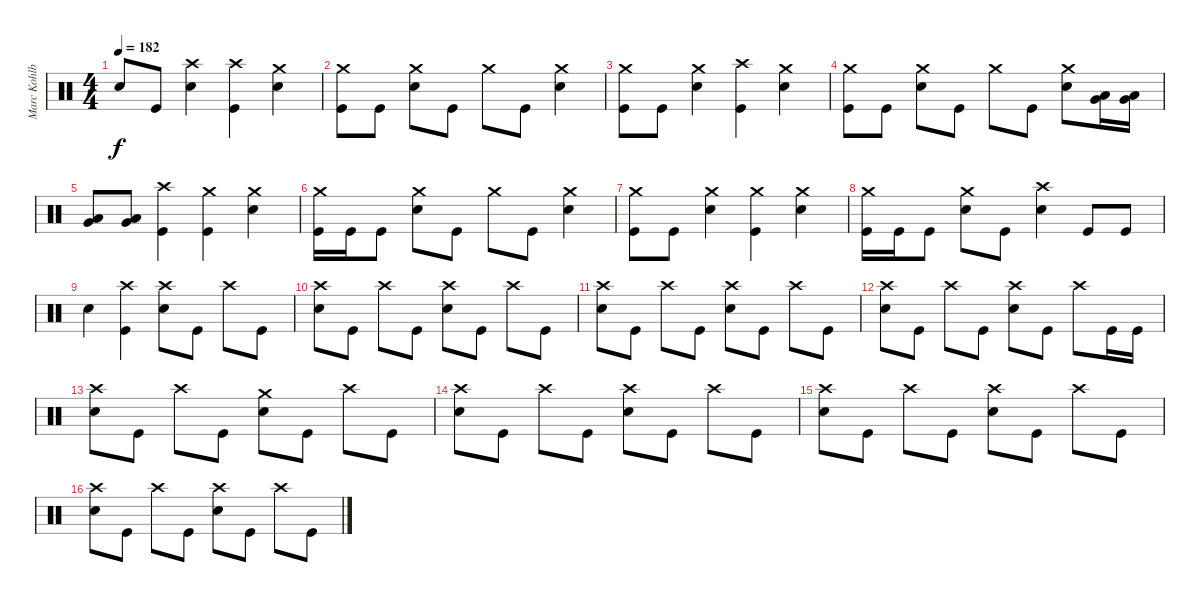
\track ("Marc Kohlbry" "Marc Kohlb") {instrument percussion}
\staff {score}
\articulation defaults
\ts (4 4)
\tempo 182
\clef neutral
\ks c "Electric Snare (hit)".8{dy f} "Kick (hit)".8
("Crash high (hit)" "Electric Snare (hit)").4 ("Crash high (hit)" "Kick (hit)").4 ("Crash medium (hit)" "Electric Snare (hit)").4 |
("Crash medium (hit)" "Kick (hit)").8 "Kick (hit)".8 ("Crash medium (hit)" "Electric Snare (hit)").8 "Kick (hit)".8 "Crash medium (hit)".8 "Kick (hit)".8 ("Crash medium (hit)" "Electric Snare (hit)").4 |
("Crash medium (hit)" "Kick (hit)").8 "Kick (hit)".8 ("Crash medium (hit)" "Electric Snare (hit)").4 ("Crash high (hit)" "Kick (hit)").4 ("Crash medium (hit)" "Electric Snare (hit)").4 |
("Crash medium (hit)" "Kick (hit)").8 "Kick (hit)".8 ("Crash medium (hit)" "Electric Snare (hit)").8 "Kick (hit)".8 "Crash medium (hit)".8 "Kick (hit)".8 ("Crash medium (hit)" "Electric Snare (hit)").8 ("Low Tom (hit)" "Very Low Tom (hit)").16 ("Low Tom (hit)" "Very Low Tom (hit)").16 |
("Very Low Tom (hit)" "Low Tom (hit)").8 ("Low Floor Tom (hit)" "Very Low Tom (hit)").8 ("Crash high (hit)" "Kick (hit)").4 ("Crash medium (hit)" "Kick (hit)").4 ("Crash medium (hit)" "Electric Snare (hit)").4 |
("Crash medium (hit)" "Kick (hit)").16 "Kick (hit)".16 "Kick (hit)".8 ("Crash medium (hit)" "Electric Snare (hit)").8 "Kick (hit)".8 "Crash medium (hit)".8 "Kick (hit)".8 ("Crash medium (hit)" "Electric Snare (hit)").4 |
("Crash medium (hit)" "Kick (hit)").8 "Kick (hit)".8 ("Crash medium (hit)" "Electric Snare (hit)").4 ("Crash medium (hit)" "Kick (hit)").4 ("Crash medium (hit)" "Electric Snare (hit)").4 |
("Crash medium (hit)" "Kick (hit)").16 "Kick (hit)".16 "Kick (hit)".8 ("Crash medium (hit)" "Electric Snare (hit)").8 "Kick (hit)".8 ("Crash high (hit)" "Electric Snare (hit)").4 "Kick (hit)".8 "Kick (hit)".8 |
"Electric Snare (hit)".4 ("Crash high (hit)" "Kick (hit)").4 ("Crash high (hit)" "Electric Snare (hit)").8 "Kick (hit)".8 "Crash high (hit)".8 "Kick (hit)".8 |
("Crash high (hit)" "Electric Snare (hit)").8 "Kick (hit)".8 "Crash high (hit)".8 "Kick (hit)".8 ("Crash high (hit)" "Electric Snare (hit)").8 "Kick (hit)".8 "Crash high (hit)".8 "Kick (hit)".8 |
("Crash high (hit)" "Electric Snare (hit)").8 "Kick (hit)".8 "Crash high (hit)".8 "Kick (hit)".8 ("Crash high (hit)" "Electric Snare (hit)").8 "Kick (hit)".8 "Crash high (hit)".8 "Kick (hit)".8 |
("Crash high (hit)" "Electric Snare (hit)").8 "Kick (hit)".8 "Crash high (hit)".8 "Kick (hit)".8 ("Crash high (hit)" "Electric Snare (hit)").8 "Kick (hit)".8 "Crash high (hit)".8 "Kick (hit)".16 "Kick (hit)".16 |
("Crash high (hit)" "Electric Snare (hit)").8 "Kick (hit)".8 "Crash high (hit)".8 "Kick (hit)".8 ("Crash medium (hit)" "Electric Snare (hit)").8 "Kick (hit)".8 "Crash high (hit)".8 "Kick (hit)".8 |
("Crash high (hit)" "Electric Snare (hit)").8 "Kick (hit)".8 "Crash high (hit)".8 "Kick (hit)".8 ("Crash high (hit)" "Electric Snare (hit)").8 "Kick (hit)".8 "Crash high (hit)".8 "Kick (hit)".8 |
("Crash high (hit)" "Electric Snare (hit)").8 "Kick (hit)".8 "Crash high (hit)".8 "Kick (hit)".8 ("Crash high (hit)" "Electric Snare (hit)").8 "Kick (hit)".8 "Crash high (hit)".8 "Kick (hit)".8 |
("Crash high (hit)" "Electric Snare (hit)").8 "Kick (hit)".8 "Crash high (hit)".8 "Kick (hit)".8 ("Crash high (hit)" "Electric Snare (hit)").8 "Kick (hit)".8 "Crash high (hit)".8 "Kick (hit)".8
